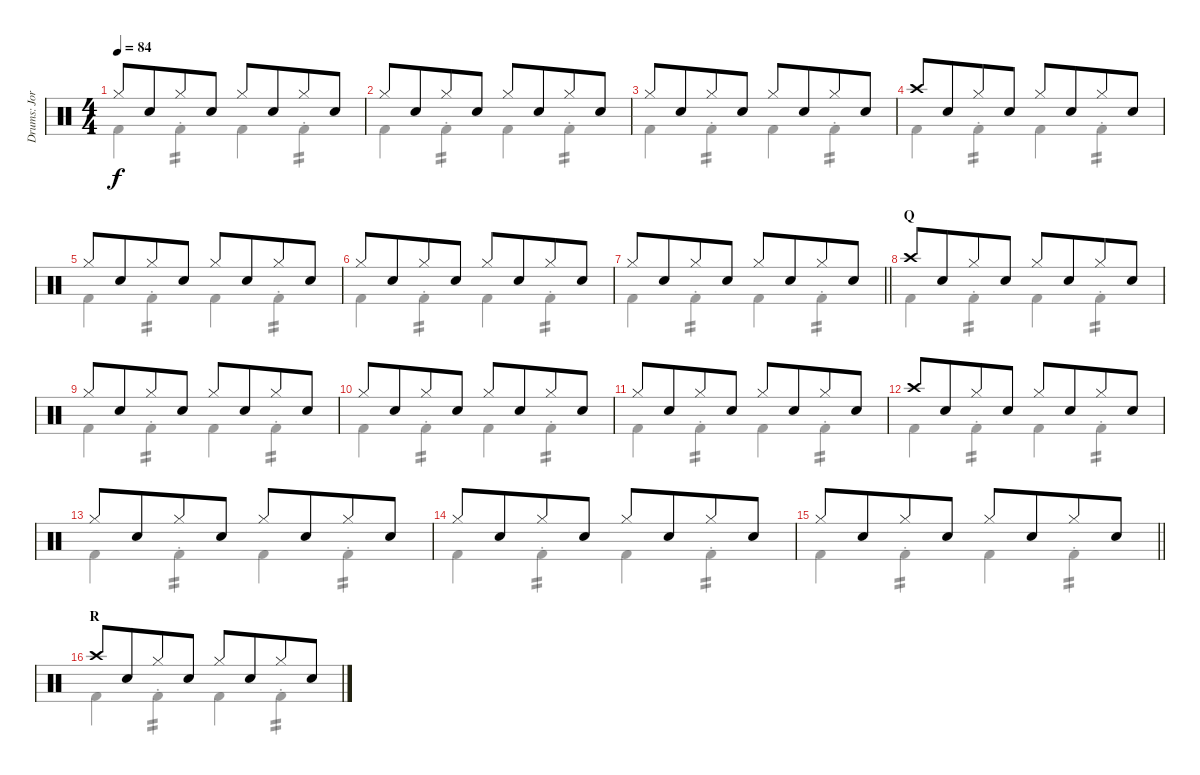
\track ("Drums: Jorg" "Drums: Jor") {instrument percussion}
\staff {score}
\articulation defaults
\voice
\ts (4 4)
\tempo 84
\clef neutral
\ks c "Hi-Hat (closed)".8{dy f} "Snare (hit) 2".8{beam merge} "Hi-Hat (closed)".8 "Snare (hit) 2".8 "Hi-Hat (closed)".8 "Snare (hit) 2".8{beam merge} "Hi-Hat (closed)".8 "Snare (hit) 2".8
|
"Hi-Hat (closed)".8 "Snare (hit) 2".8{beam merge} "Hi-Hat (closed)".8 "Snare (hit) 2".8 "Hi-Hat (closed)".8 "Snare (hit) 2".8{beam merge} "Hi-Hat (closed)".8 "Snare (hit) 2".8 |
"Hi-Hat (closed)".8 "Snare (hit) 2".8{beam merge} "Hi-Hat (closed)".8 "Snare (hit) 2".8 "Hi-Hat (closed)".8 "Snare (hit) 2".8{beam merge} "Hi-Hat (closed)".8 "Snare (hit) 2".8 |
"Crash high (hit)".8 "Snare (hit) 2".8{beam merge} "Hi-Hat (closed)".8 "Snare (hit) 2".8 "Hi-Hat (closed)".8 "Snare (hit) 2".8{beam merge} "Hi-Hat (closed)".8 "Snare (hit) 2".8 |
"Hi-Hat (closed)".8 "Snare (hit) 2".8{beam merge} "Hi-Hat (closed)".8 "Snare (hit) 2".8 "Hi-Hat (closed)".8 "Snare (hit) 2".8{beam merge} "Hi-Hat (closed)".8 "Snare (hit) 2".8 |
"Hi-Hat (closed)".8 "Snare (hit) 2".8{beam merge} "Hi-Hat (closed)".8 "Snare (hit) 2".8 "Hi-Hat (closed)".8 "Snare (hit) 2".8{beam merge} "Hi-Hat (closed)".8 "Snare (hit) 2".8 |
\barLineRight lightlight "Hi-Hat (closed)".8 "Snare (hit) 2".8{beam merge} "Hi-Hat (closed)".8 "Snare (hit) 2".8 "Hi-Hat (closed)".8 "Snare (hit) 2".8{beam merge} "Hi-Hat (closed)".8 "Snare (hit) 2".8
|
\section ("" "Q")
"Crash high (hit)".8 "Snare (hit) 2".8{beam merge} "Hi-Hat (closed)".8 "Snare (hit) 2".8 "Hi-Hat (closed)".8 "Snare (hit) 2".8{beam merge} "Hi-Hat (closed)".8 "Snare (hit) 2".8 |
"Hi-Hat (closed)".8 "Snare (hit) 2".8{beam merge} "Hi-Hat (closed)".8 "Snare (hit) 2".8 "Hi-Hat (closed)".8 "Snare (hit) 2".8{beam merge} "Hi-Hat (closed)".8 "Snare (hit) 2".8 |
"Hi-Hat (closed)".8 "Snare (hit) 2".8{beam merge} "Hi-Hat (closed)".8 "Snare (hit) 2".8 "Hi-Hat (closed)".8 "Snare (hit) 2".8{beam merge} "Hi-Hat (closed)".8 "Snare (hit) 2".8 |
"Hi-Hat (closed)".8 "Snare (hit) 2".8{beam merge} "Hi-Hat (closed)".8 "Snare (hit) 2".8 "Hi-Hat (closed)".8 "Snare (hit) 2".8{beam merge} "Hi-Hat (closed)".8 "Snare (hit) 2".8 |
"Crash high (hit)".8 "Snare (hit) 2".8{beam merge} "Hi-Hat (closed)".8 "Snare (hit) 2".8 "Hi-Hat (closed)".8 "Snare (hit) 2".8{beam merge} "Hi-Hat (closed)".8 "Snare (hit) 2".8 |
"Hi-Hat (closed)".8 "Snare (hit) 2".8{beam merge} "Hi-Hat (closed)".8 "Snare (hit) 2".8 "Hi-Hat (closed)".8 "Snare (hit) 2".8{beam merge} "Hi-Hat (closed)".8 "Snare (hit) 2".8 |
"Hi-Hat (closed)".8 "Snare (hit) 2".8{beam merge} "Hi-Hat (closed)".8 "Snare (hit) 2".8 "Hi-Hat (closed)".8 "Snare (hit) 2".8{beam merge} "Hi-Hat (closed)".8 "Snare (hit) 2".8 |
\barLineRight lightlight "Hi-Hat (closed)".8 "Snare (hit) 2".8{beam merge} "Hi-Hat (closed)".8 "Snare (hit) 2".8 "Hi-Hat (closed)".8 "Snare (hit) 2".8{beam merge} "Hi-Hat (closed)".8 "Snare (hit) 2".8
|
\section ("" "R")
"Crash high (hit)".8 "Snare (hit) 2".8{beam merge} "Hi-Hat (closed)".8 "Snare (hit) 2".8 "Hi-Hat (closed)".8 "Snare (hit) 2".8{beam merge} "Hi-Hat (closed)".8 "Snare (hit) 2".8
\voice
\clef neutral
\ottava regular
\simile none
\ks c "Kick (hit) 2".4{dy f} "Kick (hit) 2"{st}.4{tp 2} "Kick (hit) 2".4 "Kick (hit) 2"{st}.4{tp 2}
|
"Kick (hit) 2".4 "Kick (hit) 2"{st}.4{tp 2} "Kick (hit) 2".4 "Kick (hit) 2"{st}.4{tp 2} |
"Kick (hit) 2".4 "Kick (hit) 2"{st}.4{tp 2} "Kick (hit) 2".4 "Kick (hit) 2"{st}.4{tp 2} |
"Kick (hit) 2".4 "Kick (hit) 2"{st}.4{tp 2} "Kick (hit) 2".4 "Kick (hit) 2"{st}.4{tp 2} |
"Kick (hit) 2".4 "Kick (hit) 2"{st}.4{tp 2} "Kick (hit) 2".4 "Kick (hit) 2"{st}.4{tp 2} |
"Kick (hit) 2".4 "Kick (hit) 2"{st}.4{tp 2} "Kick (hit) 2".4 "Kick (hit) 2"{st}.4{tp 2} |
\barLineRight lightlight "Kick (hit) 2".4 "Kick (hit) 2"{st}.4{tp 2} "Kick (hit) 2".4 "Kick (hit) 2"{st}.4{tp 2}
|
"Kick (hit) 2".4 "Kick (hit) 2"{st}.4{tp 2} "Kick (hit) 2".4 "Kick (hit) 2"{st}.4{tp 2} |
"Kick (hit) 2".4 "Kick (hit) 2"{st}.4{tp 2} "Kick (hit) 2".4 "Kick (hit) 2"{st}.4{tp 2} |
"Kick (hit) 2".4 "Kick (hit) 2"{st}.4{tp 2} "Kick (hit) 2".4 "Kick (hit) 2"{st}.4{tp 2} |
"Kick (hit) 2".4 "Kick (hit) 2"{st}.4{tp 2} "Kick (hit) 2".4 "Kick (hit) 2"{st}.4{tp 2} |
"Kick (hit) 2".4 "Kick (hit) 2"{st}.4{tp 2} "Kick (hit) 2".4 "Kick (hit) 2"{st}.4{tp 2} |
"Kick (hit) 2".4 "Kick (hit) 2"{st}.4{tp 2} "Kick (hit) 2".4 "Kick (hit) 2"{st}.4{tp 2} |
"Kick (hit) 2".4 "Kick (hit) 2"{st}.4{tp 2} "Kick (hit) 2".4 "Kick (hit) 2"{st}.4{tp 2} |
\barLineRight lightlight "Kick (hit) 2".4 "Kick (hit) 2"{st}.4{tp 2} "Kick (hit) 2".4 "Kick (hit) 2"{st}.4{tp 2}
|
"Kick (hit) 2".4 "Kick (hit) 2"{st}.4{tp 2} "Kick (hit) 2".4 "Kick (hit) 2"{st}.4{tp 2}
